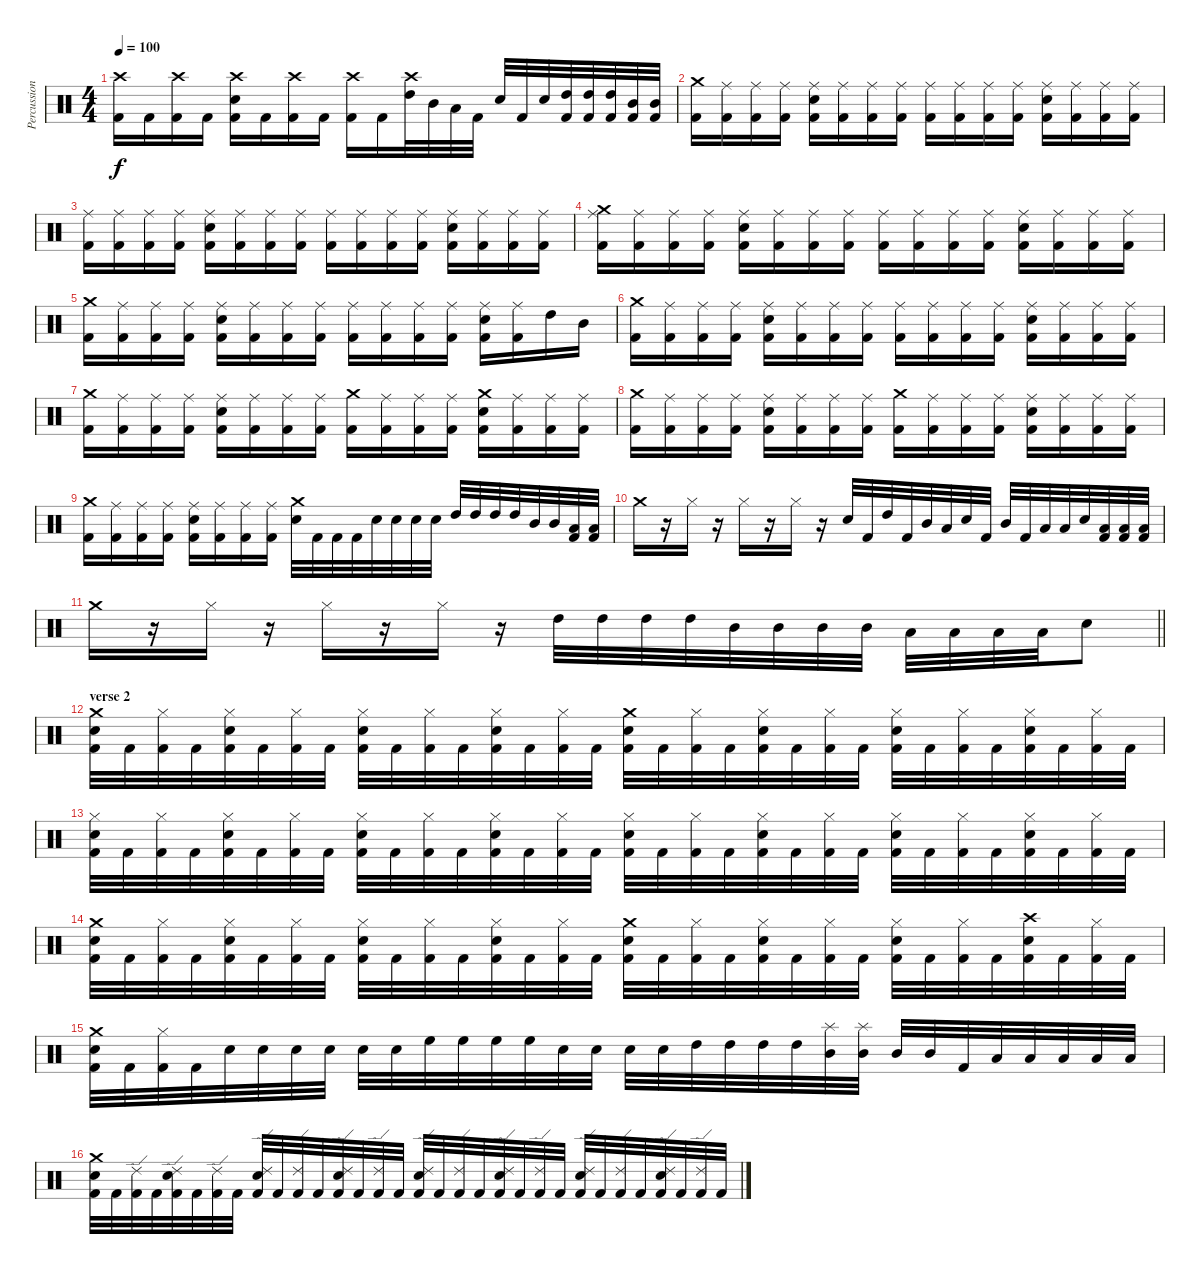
\track ("Percussion" "Percussion") {instrument percussion}
\staff {score}
\articulation defaults
\ts (4 4)
\tempo 100
\clef neutral
\ks c
("Crash high (hit)" "Kick (hit) 2").16{dy f} "Kick (hit) 2".16 ("Crash high (hit)" "Kick (hit) 2").16 "Kick (hit) 2".16 ("Crash high (hit)" "Electric Snare (hit)" "Kick (hit) 2").16 "Kick (hit) 2".16 ("Crash high (hit)" "Kick (hit) 2").16 "Kick (hit) 2".16 ("Crash high (hit)" "Kick (hit) 2").16 "Kick (hit) 2".16 ("Crash high (hit)" "High Tom (hit)").32 "Mid Tom (hit)".32 "Low Tom (hit)".32 "Kick (hit) 2".32 "Electric Snare (hit)".32 "Kick (hit) 2".32 "Electric Snare (hit)".32 ("High Tom (hit)" "Kick (hit) 2").32 ("High Tom (hit)" "Kick (hit) 2").32 ("High Tom (hit)" "Kick (hit) 2").32 ("Mid Tom (hit)" "Kick (hit) 2").32 ("Mid Tom (hit)" "Kick (hit) 2").32 |
("Crash medium (hit)" "Kick (hit) 2").16 ("Ride (middle)" "Kick (hit) 2").16 ("Ride (middle)" "Kick (hit) 2").16 ("Ride (middle)" "Kick (hit) 2").16 ("Ride (middle)" "Electric Snare (hit)" "Kick (hit) 2").16 ("Ride (middle)" "Kick (hit) 2").16 ("Ride (middle)" "Kick (hit) 2").16 ("Ride (middle)" "Kick (hit) 2").16 ("Ride (middle)" "Kick (hit) 2").16 ("Ride (middle)" "Kick (hit) 2").16 ("Ride (middle)" "Kick (hit) 2").16 ("Ride (middle)" "Kick (hit) 2").16 ("Ride (middle)" "Electric Snare (hit)" "Kick (hit) 2").16 ("Ride (middle)" "Kick (hit) 2").16 ("Ride (middle)" "Kick (hit) 2").16 ("Ride (middle)" "Kick (hit) 2").16 |
("Ride (middle)" "Kick (hit) 2").16 ("Ride (middle)" "Kick (hit) 2").16 ("Ride (middle)" "Kick (hit) 2").16 ("Ride (middle)" "Kick (hit) 2").16 ("Ride (middle)" "Electric Snare (hit)" "Kick (hit) 2").16 ("Ride (middle)" "Kick (hit) 2").16 ("Ride (middle)" "Kick (hit) 2").16 ("Ride (middle)" "Kick (hit) 2").16 ("Ride (middle)" "Kick (hit) 2").16 ("Ride (middle)" "Kick (hit) 2").16 ("Ride (middle)" "Kick (hit) 2").16 ("Ride (middle)" "Kick (hit) 2").16 ("Ride (middle)" "Electric Snare (hit)" "Kick (hit) 2").16 ("Ride (middle)" "Kick (hit) 2").16 ("Ride (middle)" "Kick (hit) 2").16 ("Ride (middle)" "Kick (hit) 2").16 |
("Ride (middle)" "Crash medium (hit)" "Kick (hit) 2").16 ("Ride (middle)" "Kick (hit) 2").16 ("Ride (middle)" "Kick (hit) 2").16 ("Ride (middle)" "Kick (hit) 2").16 ("Ride (middle)" "Electric Snare (hit)" "Kick (hit) 2").16 ("Ride (middle)" "Kick (hit) 2").16 ("Ride (middle)" "Kick (hit) 2").16 ("Ride (middle)" "Kick (hit) 2").16 ("Ride (middle)" "Kick (hit) 2").16 ("Ride (middle)" "Kick (hit) 2").16 ("Ride (middle)" "Kick (hit) 2").16 ("Ride (middle)" "Kick (hit) 2").16 ("Ride (middle)" "Electric Snare (hit)" "Kick (hit) 2").16 ("Ride (middle)" "Kick (hit) 2").16 ("Ride (middle)" "Kick (hit) 2").16 ("Ride (middle)" "Kick (hit) 2").16 |
("Crash medium (hit)" "Kick (hit) 2").16 ("Ride (middle)" "Kick (hit) 2").16 ("Ride (middle)" "Kick (hit) 2").16 ("Ride (middle)" "Kick (hit) 2").16 ("Ride (middle)" "Electric Snare (hit)" "Kick (hit) 2").16 ("Ride (middle)" "Kick (hit) 2").16 ("Ride (middle)" "Kick (hit) 2").16 ("Ride (middle)" "Kick (hit) 2").16 ("Ride (middle)" "Kick (hit) 2").16 ("Ride (middle)" "Kick (hit) 2").16 ("Ride (middle)" "Kick (hit) 2").16 ("Ride (middle)" "Kick (hit) 2").16 ("Ride (middle)" "Electric Snare (hit)" "Kick (hit) 2").16 ("Ride (middle)" "Kick (hit) 2").16 "High Tom (hit)".16 "Mid Tom (hit)".16 |
("Crash medium (hit)" "Kick (hit) 2").16 ("Ride (middle)" "Kick (hit) 2").16 ("Ride (middle)" "Kick (hit) 2").16 ("Ride (middle)" "Kick (hit) 2").16 ("Ride (middle)" "Electric Snare (hit)" "Kick (hit) 2").16 ("Ride (middle)" "Kick (hit) 2").16 ("Ride (middle)" "Kick (hit) 2").16 ("Ride (middle)" "Kick (hit) 2").16 ("Ride (middle)" "Kick (hit) 2").16 ("Ride (middle)" "Kick (hit) 2").16 ("Ride (middle)" "Kick (hit) 2").16 ("Ride (middle)" "Kick (hit) 2").16 ("Ride (middle)" "Electric Snare (hit)" "Kick (hit) 2").16 ("Ride (middle)" "Kick (hit) 2").16 ("Ride (middle)" "Kick (hit) 2").16 ("Ride (middle)" "Kick (hit) 2").16 |
("Crash medium (hit)" "Kick (hit) 2").16 ("Ride (middle)" "Kick (hit) 2").16 ("Ride (middle)" "Kick (hit) 2").16 ("Ride (middle)" "Kick (hit) 2").16 ("Ride (middle)" "Electric Snare (hit)" "Kick (hit) 2").16 ("Ride (middle)" "Kick (hit) 2").16 ("Ride (middle)" "Kick (hit) 2").16 ("Ride (middle)" "Kick (hit) 2").16 ("Crash medium (hit)" "Kick (hit) 2").16 ("Ride (middle)" "Kick (hit) 2").16 ("Ride (middle)" "Kick (hit) 2").16 ("Ride (middle)" "Kick (hit) 2").16 ("Crash medium (hit)" "Electric Snare (hit)" "Kick (hit) 2").16 ("Ride (middle)" "Kick (hit) 2").16 ("Ride (middle)" "Kick (hit) 2").16 ("Ride (middle)" "Kick (hit) 2").16 |
("Crash medium (hit)" "Kick (hit) 2").16 ("Ride (middle)" "Kick (hit) 2").16 ("Ride (middle)" "Kick (hit) 2").16 ("Ride (middle)" "Kick (hit) 2").16 ("Ride (middle)" "Electric Snare (hit)" "Kick (hit) 2").16 ("Ride (middle)" "Kick (hit) 2").16 ("Ride (middle)" "Kick (hit) 2").16 ("Ride (middle)" "Kick (hit) 2").16 ("Crash medium (hit)" "Kick (hit) 2").16 ("Ride (middle)" "Kick (hit) 2").16 ("Ride (middle)" "Kick (hit) 2").16 ("Ride (middle)" "Kick (hit) 2").16 ("Ride (middle)" "Electric Snare (hit)" "Kick (hit) 2").16 ("Ride (middle)" "Kick (hit) 2").16 ("Ride (middle)" "Kick (hit) 2").16 ("Ride (middle)" "Kick (hit) 2").16 |
("Crash medium (hit)" "Kick (hit) 2").16 ("Ride (middle)" "Kick (hit) 2").16 ("Ride (middle)" "Kick (hit) 2").16 ("Ride (middle)" "Kick (hit) 2").16 ("Ride (middle)" "Electric Snare (hit)" "Kick (hit) 2").16 ("Ride (middle)" "Kick (hit) 2").16 ("Ride (middle)" "Kick (hit) 2").16 ("Ride (middle)" "Kick (hit) 2").16 ("Crash medium (hit)" "Electric Snare (hit)").32 "Kick (hit) 2".32 "Kick (hit) 2".32 "Kick (hit) 2".32 "Electric Snare (hit)".32 "Electric Snare (hit)".32 "Electric Snare (hit)".32 "Electric Snare (hit)".32 "High Tom (hit)".32 "High Tom (hit)".32 "High Tom (hit)".32 "High Tom (hit)".32 "Mid Tom (hit)".32 "Mid Tom (hit)".32 ("Low Tom (hit)" "Kick (hit) 2").32 ("Low Tom (hit)" "Kick (hit) 2").32 |
"Crash medium (hit)".16 r.16 "Hi-Hat (closed)".16 r.16 "Hi-Hat (closed)".16 r.16 "Hi-Hat (closed)".16 r.16 "Electric Snare (hit)".32 "Kick (hit) 2".32 "High Tom (hit)".32 "Kick (hit) 2".32 "Mid Tom (hit)".32 "Low Tom (hit)".32 "Electric Snare (hit)".32 "Kick (hit) 2".32 "Mid Tom (hit)".32 "Kick (hit) 2".32 "Low Tom (hit)".32 "Low Tom (hit)".32 "Electric Snare (hit)".32 ("Low Tom (hit)" "Kick (hit) 2").32 ("Low Tom (hit)" "Kick (hit) 2").32 ("Low Tom (hit)" "Kick (hit) 2").32 |
\barLineRight lightlight "Crash medium (hit)".16
r.16 "Hi-Hat (closed)".16 r.16 "Hi-Hat (closed)".16 r.16 "Hi-Hat (closed)".16 r.16 "High Tom (hit)".32 "High Tom (hit)".32 "High Tom (hit)".32 "High Tom (hit)".32 "Mid Tom (hit)".32 "Mid Tom (hit)".32 "Mid Tom (hit)".32 "Mid Tom (hit)".32 "Low Tom (hit)".32 "Low Tom (hit)".32 "Low Tom (hit)".32 "Low Tom (hit)".32 "Electric Snare (hit)".8 |
\section ("" "verse 2")
("Crash medium (hit)" "Electric Snare (hit)" "Kick (hit) 2").32 "Kick (hit) 2".32 ("Hi-Hat (closed)" "Kick (hit) 2").32 "Kick (hit) 2".32 ("Hi-Hat (closed)" "Electric Snare (hit)" "Kick (hit) 2").32 "Kick (hit) 2".32 ("Hi-Hat (closed)" "Kick (hit) 2").32 "Kick (hit) 2".32 ("Hi-Hat (closed)" "Electric Snare (hit)" "Kick (hit) 2").32 "Kick (hit) 2".32 ("Hi-Hat (closed)" "Kick (hit) 2").32 "Kick (hit) 2".32 ("Hi-Hat (closed)" "Electric Snare (hit)" "Kick (hit) 2").32 "Kick (hit) 2".32 ("Hi-Hat (closed)" "Kick (hit) 2").32 "Kick (hit) 2".32 ("Crash medium (hit)" "Electric Snare (hit)" "Kick (hit) 2").32 "Kick (hit) 2".32 ("Hi-Hat (closed)" "Kick (hit) 2").32 "Kick (hit) 2".32 ("Hi-Hat (closed)" "Electric Snare (hit)" "Kick (hit) 2").32 "Kick (hit) 2".32 ("Hi-Hat (closed)" "Kick (hit) 2").32 "Kick (hit) 2".32 ("Hi-Hat (closed)" "Electric Snare (hit)" "Kick (hit) 2").32 "Kick (hit) 2".32 ("Hi-Hat (closed)" "Kick (hit) 2").32 "Kick (hit) 2".32 ("Hi-Hat (closed)" "Electric Snare (hit)" "Kick (hit) 2").32 "Kick (hit) 2".32 ("Hi-Hat (closed)" "Kick (hit) 2").32 "Kick (hit) 2".32 |
("Hi-Hat (closed)" "Electric Snare (hit)" "Kick (hit) 2").32 "Kick (hit) 2".32 ("Hi-Hat (closed)" "Kick (hit) 2").32 "Kick (hit) 2".32 ("Hi-Hat (closed)" "Electric Snare (hit)" "Kick (hit) 2").32 "Kick (hit) 2".32 ("Hi-Hat (closed)" "Kick (hit) 2").32 "Kick (hit) 2".32 ("Hi-Hat (closed)" "Electric Snare (hit)" "Kick (hit) 2").32 "Kick (hit) 2".32 ("Hi-Hat (closed)" "Kick (hit) 2").32 "Kick (hit) 2".32 ("Hi-Hat (closed)" "Electric Snare (hit)" "Kick (hit) 2").32 "Kick (hit) 2".32 ("Hi-Hat (closed)" "Kick (hit) 2").32 "Kick (hit) 2".32 ("Hi-Hat (closed)" "Electric Snare (hit)" "Kick (hit) 2").32 "Kick (hit) 2".32 ("Hi-Hat (closed)" "Kick (hit) 2").32 "Kick (hit) 2".32 ("Hi-Hat (closed)" "Electric Snare (hit)" "Kick (hit) 2").32 "Kick (hit) 2".32 ("Hi-Hat (closed)" "Kick (hit) 2").32 "Kick (hit) 2".32 ("Hi-Hat (closed)" "Electric Snare (hit)" "Kick (hit) 2").32 "Kick (hit) 2".32 ("Hi-Hat (closed)" "Kick (hit) 2").32 "Kick (hit) 2".32 ("Hi-Hat (closed)" "Electric Snare (hit)" "Kick (hit) 2").32 "Kick (hit) 2".32 ("Hi-Hat (closed)" "Kick (hit) 2").32 "Kick (hit) 2".32 |
("Crash medium (hit)" "Electric Snare (hit)" "Kick (hit) 2").32 "Kick (hit) 2".32 ("Hi-Hat (closed)" "Kick (hit) 2").32 "Kick (hit) 2".32 ("Hi-Hat (closed)" "Electric Snare (hit)" "Kick (hit) 2").32 "Kick (hit) 2".32 ("Hi-Hat (closed)" "Kick (hit) 2").32 "Kick (hit) 2".32 ("Hi-Hat (closed)" "Electric Snare (hit)" "Kick (hit) 2").32 "Kick (hit) 2".32 ("Hi-Hat (closed)" "Kick (hit) 2").32 "Kick (hit) 2".32 ("Hi-Hat (closed)" "Electric Snare (hit)" "Kick (hit) 2").32 "Kick (hit) 2".32 ("Hi-Hat (closed)" "Kick (hit) 2").32 "Kick (hit) 2".32 ("Crash medium (hit)" "Electric Snare (hit)" "Kick (hit) 2").32 "Kick (hit) 2".32 ("Hi-Hat (closed)" "Kick (hit) 2").32 "Kick (hit) 2".32 ("Hi-Hat (closed)" "Electric Snare (hit)" "Kick (hit) 2").32 "Kick (hit) 2".32 ("Hi-Hat (closed)" "Kick (hit) 2").32 "Kick (hit) 2".32 ("Hi-Hat (closed)" "Electric Snare (hit)" "Kick (hit) 2").32 "Kick (hit) 2".32 ("Hi-Hat (closed)" "Kick (hit) 2").32 "Kick (hit) 2".32 ("Crash high (hit)" "Electric Snare (hit)" "Kick (hit) 2").32 "Kick (hit) 2".32 ("Hi-Hat (closed)" "Kick (hit) 2").32 "Kick (hit) 2".32 |
("Crash medium (hit)" "Electric Snare (hit)" "Kick (hit) 2").32 "Kick (hit) 2".32 ("Hi-Hat (closed)" "Kick (hit) 2").32 "Kick (hit) 2".32 "Electric Snare (hit)".32 "Electric Snare (hit)".32 "Electric Snare (hit)".32 "Electric Snare (hit)".32 "Electric Snare (hit)".32 "Electric Snare (hit)".32 "High Floor Tom (hit)".32 "High Floor Tom (hit)".32 "High Floor Tom (hit)".32 "High Floor Tom (hit)".32 "Electric Snare (hit)".32 "Electric Snare (hit)".32 "Electric Snare (hit)".32 "Electric Snare (hit)".32 "High Tom (hit)".32 "High Tom (hit)".32 "High Tom (hit)".32 "High Tom (hit)".32 ("Splash (hit)" "Mid Tom (hit)").32 ("Splash (hit)" "Mid Tom (hit)").32 "Mid Tom (hit)".32 "Mid Tom (hit)".32 "Kick (hit) 2".32 "Low Tom (hit)".32 "Low Tom (hit)".32 "Low Tom (hit)".32 "Low Tom (hit)".32 "Low Tom (hit)".32 |
("Crash medium (hit)" "Electric Snare (hit)" "Kick (hit) 2").32 "Kick (hit) 2".32 ("Ride (edge) 2" "Kick (hit) 2").32 "Kick (hit) 2".32 ("Ride (edge) 2" "Electric Snare (hit)" "Kick (hit) 2").32 "Kick (hit) 2".32 ("Ride (edge) 2" "Kick (hit) 2").32 "Kick (hit) 2".32 ("Ride (edge) 2" "Electric Snare (hit)" "Kick (hit) 2").32 "Kick (hit) 2".32 ("Ride (edge) 2" "Kick (hit) 2").32 "Kick (hit) 2".32 ("Ride (edge) 2" "Electric Snare (hit)" "Kick (hit) 2").32 "Kick (hit) 2".32 ("Ride (edge) 2" "Kick (hit) 2").32 "Kick (hit) 2".32 ("Ride (edge) 2" "Electric Snare (hit)" "Kick (hit) 2").32 "Kick (hit) 2".32 ("Ride (edge) 2" "Kick (hit) 2").32 "Kick (hit) 2".32 ("Ride (edge) 2" "Electric Snare (hit)" "Kick (hit) 2").32 "Kick (hit) 2".32 ("Ride (edge) 2" "Kick (hit) 2").32 "Kick (hit) 2".32 ("Ride (edge) 2" "Electric Snare (hit)" "Kick (hit) 2").32 "Kick (hit) 2".32 ("Ride (edge) 2" "Kick (hit) 2").32 "Kick (hit) 2".32 ("Ride (edge) 2" "Electric Snare (hit)" "Kick (hit) 2").32 "Kick (hit) 2".32 ("Ride (edge) 2" "Kick (hit) 2").32 "Kick (hit) 2".32
